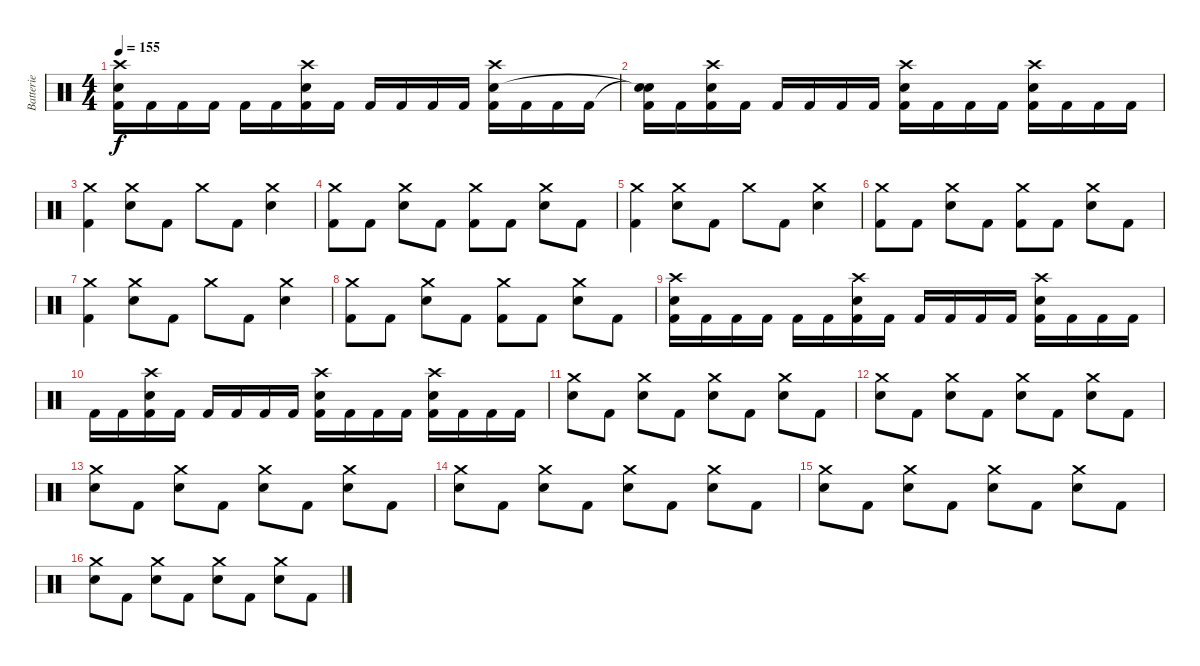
\track ("Batterie" "Batterie") {instrument percussion}
\staff {score}
\articulation defaults
\ts (4 4)
\section ("" "")
\tempo 155
\clef neutral
\ks c
("Crash high (hit)" "Electric Snare (hit)" "Kick (hit) 2").16{dy f} "Kick (hit) 2".16 "Kick (hit) 2".16 "Kick (hit) 2".16 "Kick (hit) 2".16 "Kick (hit) 2".16 ("Crash high (hit)" "Electric Snare (hit)" "Kick (hit) 2").16 "Kick (hit) 2".16 "Kick (hit) 2".16 "Kick (hit) 2".16 "Kick (hit) 2".16 "Kick (hit) 2".16 ("Crash high (hit)" "Electric Snare (hit)" "Kick (hit) 2").16 "Kick (hit) 2".16 "Kick (hit) 2".16 "Kick (hit) 2".16 |
("Snare (hit)"{t} "Snare (hit)"{t} "Kick (hit) 2").16 "Kick (hit) 2".16 ("Crash high (hit)" "Electric Snare (hit)" "Kick (hit) 2").16 "Kick (hit) 2".16 "Kick (hit) 2".16 "Kick (hit) 2".16 "Kick (hit) 2".16 "Kick (hit) 2".16 ("Crash high (hit)" "Electric Snare (hit)" "Kick (hit) 2").16 "Kick (hit) 2".16 "Kick (hit) 2".16 "Kick (hit) 2".16 ("Crash high (hit)" "Electric Snare (hit)" "Kick (hit) 2").16 "Kick (hit) 2".16 "Kick (hit) 2".16 "Kick (hit) 2".16 |
\section ("" "")
("Crash medium (hit)" "Kick (hit) 2").4 ("Crash medium (hit)" "Electric Snare (hit)").8 "Kick (hit) 2".8 "Crash medium (hit)".8 "Kick (hit) 2".8 ("Crash medium (hit)" "Electric Snare (hit)").4 |
("Crash medium (hit)" "Kick (hit) 2").8 "Kick (hit) 2".8 ("Crash medium (hit)" "Electric Snare (hit)").8 "Kick (hit) 2".8 ("Crash medium (hit)" "Kick (hit) 2").8 "Kick (hit) 2".8 ("Crash medium (hit)" "Electric Snare (hit)").8 "Kick (hit) 2".8 |
("Crash medium (hit)" "Kick (hit) 2").4 ("Crash medium (hit)" "Electric Snare (hit)").8 "Kick (hit) 2".8 "Crash medium (hit)".8 "Kick (hit) 2".8 ("Crash medium (hit)" "Electric Snare (hit)").4 |
("Crash medium (hit)" "Kick (hit) 2").8 "Kick (hit) 2".8 ("Crash medium (hit)" "Electric Snare (hit)").8 "Kick (hit) 2".8 ("Crash medium (hit)" "Kick (hit) 2").8 "Kick (hit) 2".8 ("Crash medium (hit)" "Electric Snare (hit)").8 "Kick (hit) 2".8 |
("Crash medium (hit)" "Kick (hit) 2").4 ("Crash medium (hit)" "Electric Snare (hit)").8 "Kick (hit) 2".8 "Crash medium (hit)".8 "Kick (hit) 2".8 ("Crash medium (hit)" "Electric Snare (hit)").4 |
("Crash medium (hit)" "Kick (hit) 2").8 "Kick (hit) 2".8 ("Crash medium (hit)" "Electric Snare (hit)").8 "Kick (hit) 2".8 ("Crash medium (hit)" "Kick (hit) 2").8 "Kick (hit) 2".8 ("Crash medium (hit)" "Electric Snare (hit)").8 "Kick (hit) 2".8 |
("Crash high (hit)" "Electric Snare (hit)" "Kick (hit) 2").16 "Kick (hit) 2".16 "Kick (hit) 2".16 "Kick (hit) 2".16 "Kick (hit) 2".16 "Kick (hit) 2".16 ("Crash high (hit)" "Electric Snare (hit)" "Kick (hit) 2").16 "Kick (hit) 2".16 "Kick (hit) 2".16 "Kick (hit) 2".16 "Kick (hit) 2".16 "Kick (hit) 2".16 ("Crash high (hit)" "Electric Snare (hit)" "Kick (hit) 2").16 "Kick (hit) 2".16 "Kick (hit) 2".16 "Kick (hit) 2".16 |
"Kick (hit) 2".16 "Kick (hit) 2".16 ("Crash high (hit)" "Electric Snare (hit)" "Kick (hit) 2").16 "Kick (hit) 2".16 "Kick (hit) 2".16 "Kick (hit) 2".16 "Kick (hit) 2".16 "Kick (hit) 2".16 ("Crash high (hit)" "Electric Snare (hit)" "Kick (hit) 2").16 "Kick (hit) 2".16 "Kick (hit) 2".16 "Kick (hit) 2".16 ("Crash high (hit)" "Electric Snare (hit)" "Kick (hit) 2").16 "Kick (hit) 2".16 "Kick (hit) 2".16 "Kick (hit) 2".16 |
("Crash medium (hit)" "Electric Snare (hit)").8 "Kick (hit) 2".8 ("Crash medium (hit)" "Electric Snare (hit)").8 "Kick (hit) 2".8 ("Crash medium (hit)" "Electric Snare (hit)").8 "Kick (hit) 2".8 ("Crash medium (hit)" "Electric Snare (hit)").8 "Kick (hit) 2".8 |
("Crash medium (hit)" "Electric Snare (hit)").8 "Kick (hit) 2".8 ("Crash medium (hit)" "Electric Snare (hit)").8 "Kick (hit) 2".8 ("Crash medium (hit)" "Electric Snare (hit)").8 "Kick (hit) 2".8 ("Crash medium (hit)" "Electric Snare (hit)").8 "Kick (hit) 2".8 |
("Crash medium (hit)" "Electric Snare (hit)").8 "Kick (hit) 2".8 ("Crash medium (hit)" "Electric Snare (hit)").8 "Kick (hit) 2".8 ("Crash medium (hit)" "Electric Snare (hit)").8 "Kick (hit) 2".8 ("Crash medium (hit)" "Electric Snare (hit)").8 "Kick (hit) 2".8 |
("Crash medium (hit)" "Electric Snare (hit)").8 "Kick (hit) 2".8 ("Crash medium (hit)" "Electric Snare (hit)").8 "Kick (hit) 2".8 ("Crash medium (hit)" "Electric Snare (hit)").8 "Kick (hit) 2".8 ("Crash medium (hit)" "Electric Snare (hit)").8 "Kick (hit) 2".8 |
("Crash medium (hit)" "Electric Snare (hit)").8 "Kick (hit) 2".8 ("Crash medium (hit)" "Electric Snare (hit)").8 "Kick (hit) 2".8 ("Crash medium (hit)" "Electric Snare (hit)").8 "Kick (hit) 2".8 ("Crash medium (hit)" "Electric Snare (hit)").8 "Kick (hit) 2".8 |
("Crash medium (hit)" "Electric Snare (hit)").8 "Kick (hit) 2".8 ("Crash medium (hit)" "Electric Snare (hit)").8 "Kick (hit) 2".8 ("Crash medium (hit)" "Electric Snare (hit)").8 "Kick (hit) 2".8 ("Crash medium (hit)" "Electric Snare (hit)").8 "Kick (hit) 2".8
